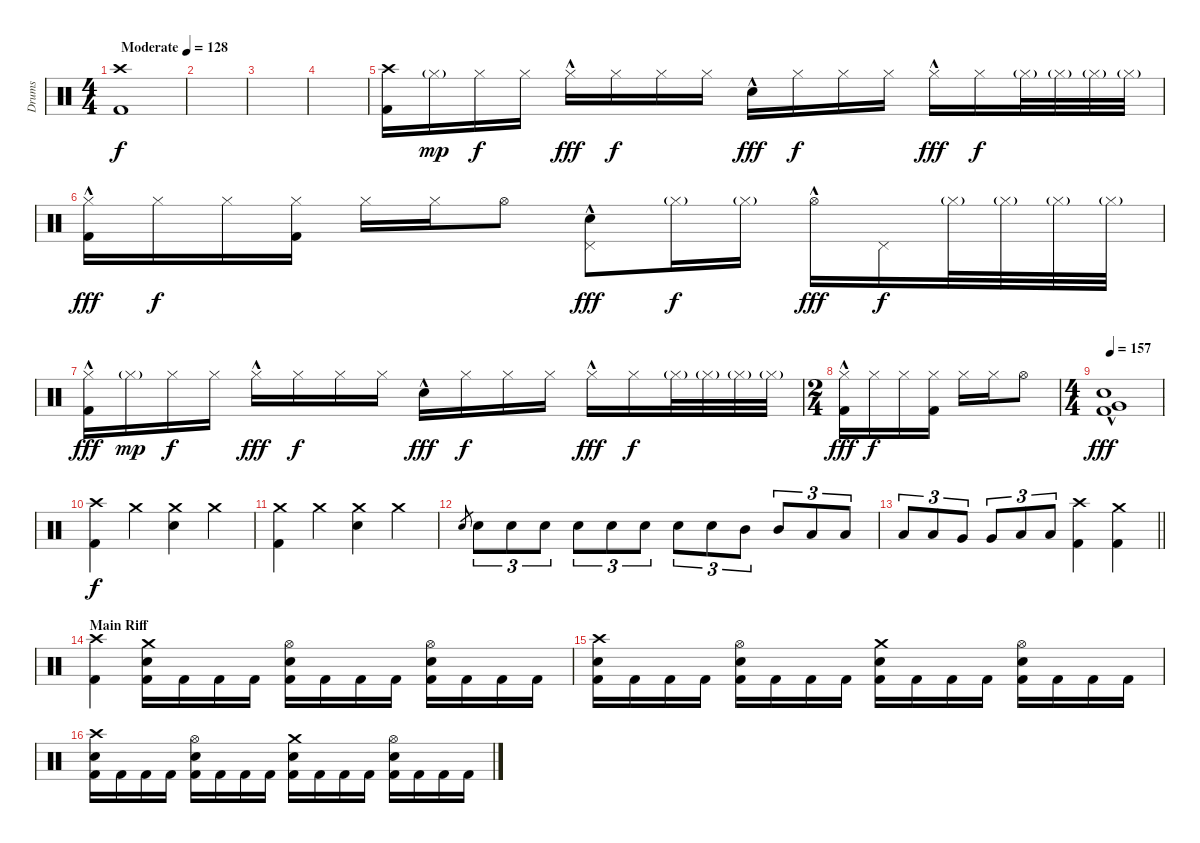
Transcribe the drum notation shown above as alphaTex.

\track ("Drums" "Drums") {instrument percussion}
\staff {score}
\articulation defaults
\ts (4 4)
\tempo (128 "Moderate")
\clef neutral
\ks c
("Crash high (hit)" "Kick (hit) 2").1{dy f} |
|
|
|
("Crash high (hit)" "Kick (hit) 2").16 "Hi-Hat (closed)"{g}.16{dy mp} "Hi-Hat (closed)".16{dy f} "Hi-Hat (closed)".16 "Hi-Hat (closed)"{hac}.16{dy fff} "Hi-Hat (closed)".16{dy f} "Hi-Hat (closed)".16 "Hi-Hat (closed)".16 "Electric Snare (hit)"{hac}.16{dy fff} "Hi-Hat (closed)".16{dy f} "Hi-Hat (closed)".16 "Hi-Hat (closed)".16 "Hi-Hat (closed)"{hac}.16{dy fff} "Hi-Hat (closed)".16{dy f} "Hi-Hat (closed)"{g}.32 "Hi-Hat (closed)"{g}.32 "Hi-Hat (closed)"{g}.32 "Hi-Hat (closed)"{g}.32 |
("Hi-Hat (closed)"{hac} "Kick (hit) 2").16{dy fff} "Hi-Hat (closed)".16{dy f} "Hi-Hat (closed)".16 ("Hi-Hat (closed)" "Kick (hit) 2").16 "Hi-Hat (closed)".16 "Hi-Hat (closed)".16 "Hi-Hat (open)".8 ("Pedal Hi-Hat (hit)" "Electric Snare (hit)"{hac}).8{dy fff} "Hi-Hat (closed)"{g}.16{dy f} "Hi-Hat (closed)"{g}.16 "Hi-Hat (open)"{hac}.16{dy fff} "Pedal Hi-Hat (hit)".16{dy f} "Hi-Hat (closed)"{g}.32 "Hi-Hat (closed)"{g}.32 "Hi-Hat (closed)"{g}.32 "Hi-Hat (closed)"{g}.32 |
("Hi-Hat (closed)"{hac} "Kick (hit) 2").16{dy fff} "Hi-Hat (closed)"{g}.16{dy mp} "Hi-Hat (closed)".16{dy f} "Hi-Hat (closed)".16 "Hi-Hat (closed)"{hac}.16{dy fff} "Hi-Hat (closed)".16{dy f} "Hi-Hat (closed)".16 "Hi-Hat (closed)".16 "Electric Snare (hit)"{hac}.16{dy fff} "Hi-Hat (closed)".16{dy f} "Hi-Hat (closed)".16 "Hi-Hat (closed)".16 "Hi-Hat (closed)"{hac}.16{dy fff} "Hi-Hat (closed)".16{dy f} "Hi-Hat (closed)"{g}.32 "Hi-Hat (closed)"{g}.32 "Hi-Hat (closed)"{g}.32 "Hi-Hat (closed)"{g}.32 |
\ts (2 4)
("Hi-Hat (closed)"{hac} "Kick (hit) 2").16{dy fff} "Hi-Hat (closed)".16{dy f} "Hi-Hat (closed)".16 ("Hi-Hat (closed)" "Kick (hit) 2").16 "Hi-Hat (closed)".16 "Hi-Hat (closed)".16 "Hi-Hat (open)".8 |
\ts (4 4)
\tempo 157
("Electric Snare (hit)"{hac} "Very Low Tom (hit)"{hac} "Kick (hit) 2"{hac}).1{dy fff} |
("Crash high (hit)" "Kick (hit) 2").4{dy f} "Crash medium (hit)".4 ("Crash medium (hit)" "Electric Snare (hit)").4 "Crash medium (hit)".4 |
("Crash medium (hit)" "Kick (hit) 2").4 "Crash medium (hit)".4 ("Crash medium (hit)" "Electric Snare (hit)").4 "Crash medium (hit)".4 |
"Electric Snare (hit)".8{gr} "Electric Snare (hit)".8{tu (3 2)} "Electric Snare (hit)".8{tu (3 2)} "Electric Snare (hit)".8{tu (3 2)} "Electric Snare (hit)".8{tu (3 2)} "Electric Snare (hit)".8{tu (3 2)} "Electric Snare (hit)".8{tu (3 2)} "Electric Snare (hit)".8{tu (3 2)} "Electric Snare (hit)".8{tu (3 2)} "Mid Tom (hit)".8{tu (3 2)} "Mid Tom (hit)".8{tu (3 2)} "Low Tom (hit)".8{tu (3 2)} "Low Tom (hit)".8{tu (3 2)} |
\barLineRight lightlight "Low Tom (hit)".8{tu (3 2)} "Low Tom (hit)".8{tu (3 2)} "Very Low Tom (hit)".8{tu (3 2)} "Very Low Tom (hit)".8{tu (3 2)} "Low Floor Tom (hit)".8{tu (3 2)} "Low Floor Tom (hit)".8{tu (3 2)}
("Crash high (hit)" "Kick (hit) 2").4 ("Crash medium (hit)" "Kick (hit) 2").4 |
\section ("" "Main Riff")
("Crash high (hit)" "Kick (hit) 2").4 ("Crash medium (hit)" "Electric Snare (hit)" "Kick (hit) 2").16 "Kick (hit) 2".16 "Kick (hit) 2".16 "Kick (hit) 2".16 ("Hi-Hat (open)" "Electric Snare (hit)" "Kick (hit) 2").16 "Kick (hit) 2".16 "Kick (hit) 2".16 "Kick (hit) 2".16 ("Hi-Hat (open)" "Electric Snare (hit)" "Kick (hit) 2").16 "Kick (hit) 2".16 "Kick (hit) 2".16 "Kick (hit) 2".16 |
("Crash high (hit)" "Electric Snare (hit)" "Kick (hit) 2").16 "Kick (hit) 2".16 "Kick (hit) 2".16 "Kick (hit) 2".16 ("Hi-Hat (open)" "Electric Snare (hit)" "Kick (hit) 2").16 "Kick (hit) 2".16 "Kick (hit) 2".16 "Kick (hit) 2".16 ("Crash medium (hit)" "Electric Snare (hit)" "Kick (hit) 2").16 "Kick (hit) 2".16 "Kick (hit) 2".16 "Kick (hit) 2".16 ("Hi-Hat (open)" "Electric Snare (hit)" "Kick (hit) 2").16 "Kick (hit) 2".16 "Kick (hit) 2".16 "Kick (hit) 2".16 |
("Crash high (hit)" "Electric Snare (hit)" "Kick (hit) 2").16 "Kick (hit) 2".16 "Kick (hit) 2".16 "Kick (hit) 2".16 ("Hi-Hat (open)" "Electric Snare (hit)" "Kick (hit) 2").16 "Kick (hit) 2".16 "Kick (hit) 2".16 "Kick (hit) 2".16 ("Crash medium (hit)" "Electric Snare (hit)" "Kick (hit) 2").16 "Kick (hit) 2".16 "Kick (hit) 2".16 "Kick (hit) 2".16 ("Hi-Hat (open)" "Electric Snare (hit)" "Kick (hit) 2").16 "Kick (hit) 2".16 "Kick (hit) 2".16 "Kick (hit) 2".16
